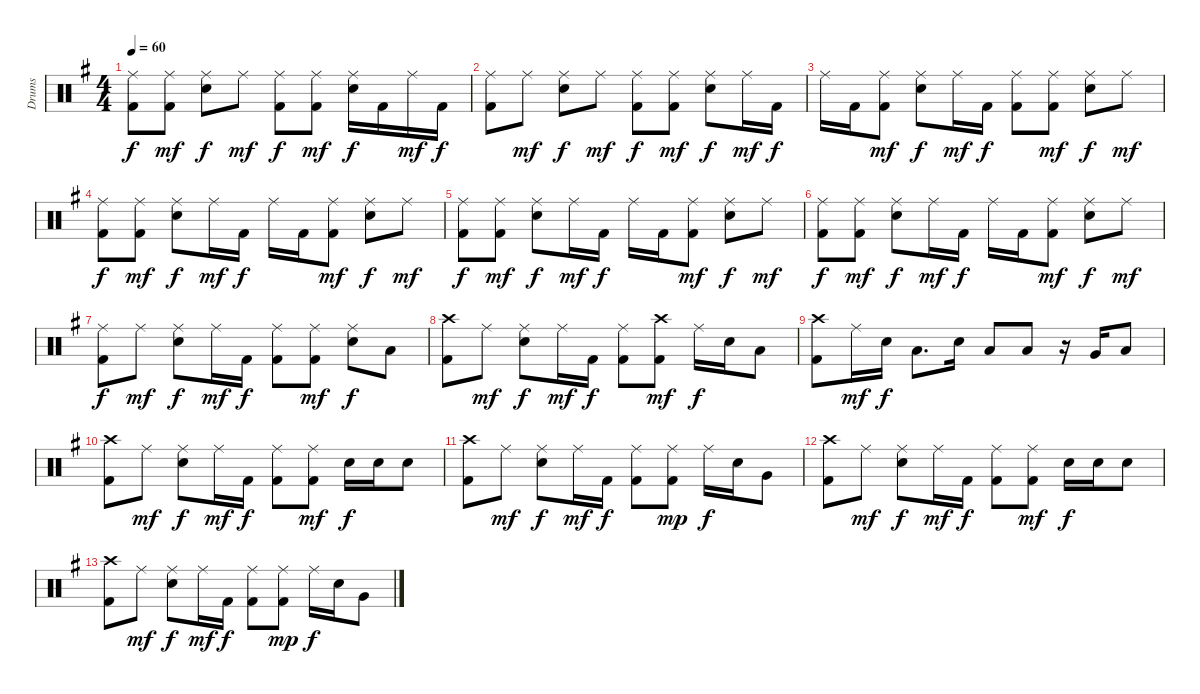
\track ("Drums" "Drums") {instrument percussion}
\staff {score}
\articulation defaults
\ts (4 4)
\tempo 60
\clef neutral
\ks g
("Ride (middle)" "Kick (hit) 2").8{dy f} ("Ride (middle)" "Kick (hit) 2").8{dy mf} ("Ride (middle)" "Electric Snare (hit)").8{dy f} "Ride (middle)".8{dy mf} ("Ride (middle)" "Kick (hit) 2").8{dy f} ("Ride (middle)" "Kick (hit) 2").8{dy mf} ("Ride (middle)" "Electric Snare (hit)").16{dy f} "Kick (hit) 2".16 "Ride (middle)".16{dy mf} "Kick (hit) 2".16{dy f} |
("Ride (middle)" "Kick (hit) 2").8 "Ride (middle)".8{dy mf} ("Ride (middle)" "Electric Snare (hit)").8{dy f} "Ride (middle)".8{dy mf} ("Ride (middle)" "Kick (hit) 2").8{dy f} ("Ride (middle)" "Kick (hit) 2").8{dy mf} ("Ride (middle)" "Electric Snare (hit)").8{dy f} "Ride (middle)".16{dy mf} "Kick (hit) 2".16{dy f} |
"Ride (middle)".16 "Kick (hit) 2".16 ("Ride (middle)" "Kick (hit) 2").8{dy mf} ("Ride (middle)" "Electric Snare (hit)").8{dy f} "Ride (middle)".16{dy mf} "Kick (hit) 2".16{dy f} ("Ride (middle)" "Kick (hit) 2").8 ("Ride (middle)" "Kick (hit) 2").8{dy mf} ("Ride (middle)" "Electric Snare (hit)").8{dy f} "Ride (middle)".8{dy mf} |
("Ride (middle)" "Kick (hit) 2").8{dy f} ("Ride (middle)" "Kick (hit) 2").8{dy mf} ("Ride (middle)" "Electric Snare (hit)").8{dy f} "Ride (middle)".16{dy mf} "Kick (hit) 2".16{dy f} "Ride (middle)".16 "Kick (hit) 2".16 ("Ride (middle)" "Kick (hit) 2").8{dy mf} ("Ride (middle)" "Electric Snare (hit)").8{dy f} "Ride (middle)".8{dy mf} |
("Ride (middle)" "Kick (hit) 2").8{dy f} ("Ride (middle)" "Kick (hit) 2").8{dy mf} ("Ride (middle)" "Electric Snare (hit)").8{dy f} "Ride (middle)".16{dy mf} "Kick (hit) 2".16{dy f} "Ride (middle)".16 "Kick (hit) 2".16 ("Ride (middle)" "Kick (hit) 2").8{dy mf} ("Ride (middle)" "Electric Snare (hit)").8{dy f} "Ride (middle)".8{dy mf} |
("Ride (middle)" "Kick (hit) 2").8{dy f} ("Ride (middle)" "Kick (hit) 2").8{dy mf} ("Ride (middle)" "Electric Snare (hit)").8{dy f} "Ride (middle)".16{dy mf} "Kick (hit) 2".16{dy f} "Ride (middle)".16 "Kick (hit) 2".16 ("Ride (middle)" "Kick (hit) 2").8{dy mf} ("Ride (middle)" "Electric Snare (hit)").8{dy f} "Ride (middle)".8{dy mf} |
("Ride (middle)" "Kick (hit) 2").8{dy f} "Ride (middle)".8{dy mf} ("Ride (middle)" "Electric Snare (hit)").8{dy f} "Ride (middle)".16{dy mf} "Kick (hit) 2".16{dy f} ("Ride (middle)" "Kick (hit) 2").8 ("Ride (middle)" "Kick (hit) 2").8{dy mf} ("Ride (middle)" "Electric Snare (hit)").8{dy f} "Low Tom (hit)".8 |
("Crash high (hit)" "Kick (hit) 2").8 "Ride (middle)".8{dy mf} ("Ride (middle)" "Electric Snare (hit)").8{dy f} "Ride (middle)".16{dy mf} "Kick (hit) 2".16{dy f} ("Ride (middle)" "Kick (hit) 2").8 ("Crash high (hit)" "Kick (hit) 2").8{dy mf} "Ride (middle)".16{dy f} "Electric Snare (hit)".16 "Low Tom (hit)".8 |
("Crash high (hit)" "Kick (hit) 2").8 "Ride (middle)".16{dy mf} "Electric Snare (hit)".16{dy f} "Low Tom (hit)".8{d} "Electric Snare (hit)".16 "Low Tom (hit)".8 "Low Tom (hit)".8 r.16 "Very Low Tom (hit)".16 "Low Floor Tom (hit)".8 |
("Crash high (hit)" "Kick (hit) 2").8{volume 0} "Ride (middle)".8{dy mf} ("Ride (middle)" "Electric Snare (hit)").8{dy f} "Ride (middle)".16{dy mf} "Kick (hit) 2".16{dy f} ("Ride (middle)" "Kick (hit) 2").8 ("Ride (middle)" "Kick (hit) 2").8{dy mf} "Electric Snare (hit)".16{dy f} "Electric Snare (hit)".16 "Electric Snare (hit)".8 |
("Crash high (hit)" "Kick (hit) 2").8 "Ride (middle)".8{dy mf} ("Ride (middle)" "Electric Snare (hit)").8{dy f} "Ride (middle)".16{dy mf} "Kick (hit) 2".16{dy f} ("Ride (middle)" "Kick (hit) 2").8 ("Ride (middle)" "Kick (hit) 2").8{dy mp} "Ride (middle)".16{dy f} "Electric Snare (hit)".16 "Very Low Tom (hit)".8 |
("Crash high (hit)" "Kick (hit) 2").8 "Ride (middle)".8{dy mf} ("Ride (middle)" "Electric Snare (hit)").8{dy f} "Ride (middle)".16{dy mf} "Kick (hit) 2".16{dy f} ("Ride (middle)" "Kick (hit) 2").8 ("Ride (middle)" "Kick (hit) 2").8{dy mf} "Electric Snare (hit)".16{dy f} "Electric Snare (hit)".16 "Electric Snare (hit)".8 |
("Crash high (hit)" "Kick (hit) 2").8 "Ride (middle)".8{dy mf} ("Ride (middle)" "Electric Snare (hit)").8{dy f} "Ride (middle)".16{dy mf} "Kick (hit) 2".16{dy f} ("Ride (middle)" "Kick (hit) 2").8 ("Ride (middle)" "Kick (hit) 2").8{dy mp} "Ride (middle)".16{dy f} "Electric Snare (hit)".16 "Very Low Tom (hit)".8
